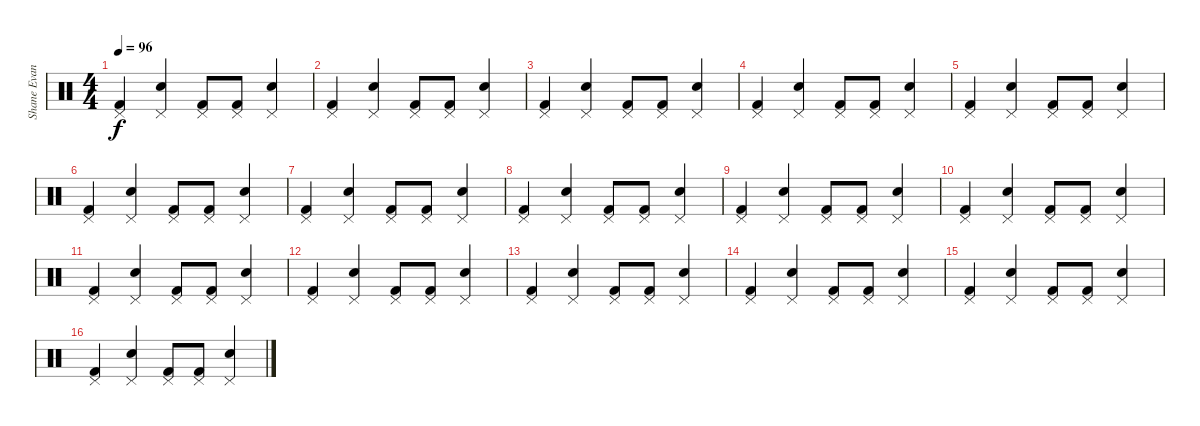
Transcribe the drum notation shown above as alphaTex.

\track ("Shane Evans" "Shane Evan") {instrument percussion}
\staff {score}
\articulation defaults
\ts (4 4)
\tempo 96
\clef neutral
\ks c
("Pedal Hi-Hat (hit)" "Kick (hit) 2").4{dy f} ("Pedal Hi-Hat (hit)" "Snare (hit) 2").4 ("Pedal Hi-Hat (hit)" "Kick (hit) 2").8 ("Pedal Hi-Hat (hit)" "Kick (hit) 2").8 ("Pedal Hi-Hat (hit)" "Snare (hit) 2").4 |
("Pedal Hi-Hat (hit)" "Kick (hit) 2").4 ("Pedal Hi-Hat (hit)" "Snare (hit) 2").4 ("Pedal Hi-Hat (hit)" "Kick (hit) 2").8 ("Pedal Hi-Hat (hit)" "Kick (hit) 2").8 ("Pedal Hi-Hat (hit)" "Snare (hit) 2").4 |
("Pedal Hi-Hat (hit)" "Kick (hit) 2").4 ("Pedal Hi-Hat (hit)" "Snare (hit) 2").4 ("Pedal Hi-Hat (hit)" "Kick (hit) 2").8 ("Pedal Hi-Hat (hit)" "Kick (hit) 2").8 ("Pedal Hi-Hat (hit)" "Snare (hit) 2").4 |
("Pedal Hi-Hat (hit)" "Kick (hit) 2").4 ("Pedal Hi-Hat (hit)" "Snare (hit) 2").4 ("Pedal Hi-Hat (hit)" "Kick (hit) 2").8 ("Pedal Hi-Hat (hit)" "Kick (hit) 2").8 ("Pedal Hi-Hat (hit)" "Snare (hit) 2").4 |
("Pedal Hi-Hat (hit)" "Kick (hit) 2").4 ("Pedal Hi-Hat (hit)" "Snare (hit) 2").4 ("Pedal Hi-Hat (hit)" "Kick (hit) 2").8 ("Pedal Hi-Hat (hit)" "Kick (hit) 2").8 ("Pedal Hi-Hat (hit)" "Snare (hit) 2").4 |
("Pedal Hi-Hat (hit)" "Kick (hit) 2").4 ("Pedal Hi-Hat (hit)" "Snare (hit) 2").4 ("Pedal Hi-Hat (hit)" "Kick (hit) 2").8 ("Pedal Hi-Hat (hit)" "Kick (hit) 2").8 ("Pedal Hi-Hat (hit)" "Snare (hit) 2").4 |
("Pedal Hi-Hat (hit)" "Kick (hit) 2").4 ("Pedal Hi-Hat (hit)" "Snare (hit) 2").4 ("Pedal Hi-Hat (hit)" "Kick (hit) 2").8 ("Pedal Hi-Hat (hit)" "Kick (hit) 2").8 ("Pedal Hi-Hat (hit)" "Snare (hit) 2").4 |
("Pedal Hi-Hat (hit)" "Kick (hit) 2").4 ("Pedal Hi-Hat (hit)" "Snare (hit) 2").4 ("Pedal Hi-Hat (hit)" "Kick (hit) 2").8 ("Pedal Hi-Hat (hit)" "Kick (hit) 2").8 ("Pedal Hi-Hat (hit)" "Snare (hit) 2").4 |
("Pedal Hi-Hat (hit)" "Kick (hit) 2").4 ("Pedal Hi-Hat (hit)" "Snare (hit) 2").4 ("Pedal Hi-Hat (hit)" "Kick (hit) 2").8 ("Pedal Hi-Hat (hit)" "Kick (hit) 2").8 ("Pedal Hi-Hat (hit)" "Snare (hit) 2").4 |
("Pedal Hi-Hat (hit)" "Kick (hit) 2").4 ("Pedal Hi-Hat (hit)" "Snare (hit) 2").4 ("Pedal Hi-Hat (hit)" "Kick (hit) 2").8 ("Pedal Hi-Hat (hit)" "Kick (hit) 2").8 ("Pedal Hi-Hat (hit)" "Snare (hit) 2").4 |
("Pedal Hi-Hat (hit)" "Kick (hit) 2").4 ("Pedal Hi-Hat (hit)" "Snare (hit) 2").4 ("Pedal Hi-Hat (hit)" "Kick (hit) 2").8 ("Pedal Hi-Hat (hit)" "Kick (hit) 2").8 ("Pedal Hi-Hat (hit)" "Snare (hit) 2").4 |
("Pedal Hi-Hat (hit)" "Kick (hit) 2").4 ("Pedal Hi-Hat (hit)" "Snare (hit) 2").4 ("Pedal Hi-Hat (hit)" "Kick (hit) 2").8 ("Pedal Hi-Hat (hit)" "Kick (hit) 2").8 ("Pedal Hi-Hat (hit)" "Snare (hit) 2").4 |
("Pedal Hi-Hat (hit)" "Kick (hit) 2").4 ("Pedal Hi-Hat (hit)" "Snare (hit) 2").4 ("Pedal Hi-Hat (hit)" "Kick (hit) 2").8 ("Pedal Hi-Hat (hit)" "Kick (hit) 2").8 ("Pedal Hi-Hat (hit)" "Snare (hit) 2").4 |
("Pedal Hi-Hat (hit)" "Kick (hit) 2").4 ("Pedal Hi-Hat (hit)" "Snare (hit) 2").4 ("Pedal Hi-Hat (hit)" "Kick (hit) 2").8 ("Pedal Hi-Hat (hit)" "Kick (hit) 2").8 ("Pedal Hi-Hat (hit)" "Snare (hit) 2").4 |
("Pedal Hi-Hat (hit)" "Kick (hit) 2").4 ("Pedal Hi-Hat (hit)" "Snare (hit) 2").4 ("Pedal Hi-Hat (hit)" "Kick (hit) 2").8 ("Pedal Hi-Hat (hit)" "Kick (hit) 2").8 ("Pedal Hi-Hat (hit)" "Snare (hit) 2").4 |
("Pedal Hi-Hat (hit)" "Kick (hit) 2").4 ("Pedal Hi-Hat (hit)" "Snare (hit) 2").4 ("Pedal Hi-Hat (hit)" "Kick (hit) 2").8 ("Pedal Hi-Hat (hit)" "Kick (hit) 2").8 ("Pedal Hi-Hat (hit)" "Snare (hit) 2").4
